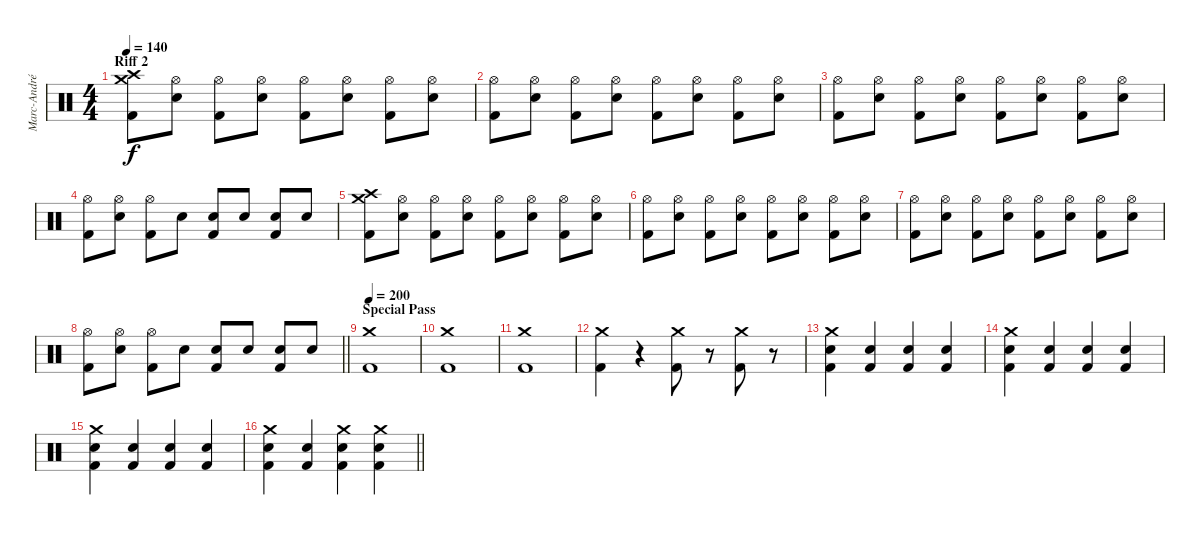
\track ("Marc-André Barabé" "Marc-André") {instrument percussion}
\staff {score}
\articulation defaults
\ts (4 4)
\section ("" "Riff 2")
\tempo 140
\clef neutral
\ks c
("Crash high (hit)" "Crash medium (hit)" "Kick (hit) 2").8{dy f} ("Hi-Hat (open)" "Electric Snare (hit)").8 ("Hi-Hat (open)" "Kick (hit) 2").8 ("Hi-Hat (open)" "Electric Snare (hit)").8 ("Hi-Hat (open)" "Kick (hit) 2"{tr (4 32)}).8 ("Hi-Hat (open)" "Electric Snare (hit)").8 ("Hi-Hat (open)" "Kick (hit) 2").8 ("Hi-Hat (open)" "Electric Snare (hit)").8 |
("Hi-Hat (open)" "Kick (hit) 2").8 ("Hi-Hat (open)" "Electric Snare (hit)").8 ("Hi-Hat (open)" "Kick (hit) 2").8 ("Hi-Hat (open)" "Electric Snare (hit)").8 ("Hi-Hat (open)" "Kick (hit) 2"{tr (4 32)}).8 ("Hi-Hat (open)" "Electric Snare (hit)").8 ("Hi-Hat (open)" "Kick (hit) 2").8 ("Hi-Hat (open)" "Electric Snare (hit)").8 |
("Hi-Hat (open)" "Kick (hit) 2").8 ("Hi-Hat (open)" "Electric Snare (hit)").8 ("Hi-Hat (open)" "Kick (hit) 2").8 ("Hi-Hat (open)" "Electric Snare (hit)").8 ("Hi-Hat (open)" "Kick (hit) 2"{tr (4 32)}).8 ("Hi-Hat (open)" "Electric Snare (hit)").8 ("Hi-Hat (open)" "Kick (hit) 2").8 ("Hi-Hat (open)" "Electric Snare (hit)").8 |
("Hi-Hat (open)" "Kick (hit) 2").8 ("Hi-Hat (open)" "Electric Snare (hit)").8 ("Hi-Hat (open)" "Kick (hit) 2").8 "Electric Snare (hit)"{tr (4 32)}.8 ("Electric Snare (hit)"{tr (4 32)} "Kick (hit) 2"{tr (4 32)}).8 "Electric Snare (hit)"{tr (4 32)}.8 ("Electric Snare (hit)"{tr (4 32)} "Kick (hit) 2").8 "Electric Snare (hit)"{tr (4 32)}.8 |
("Crash high (hit)" "Crash medium (hit)" "Kick (hit) 2").8 ("Hi-Hat (open)" "Electric Snare (hit)").8 ("Hi-Hat (open)" "Kick (hit) 2").8 ("Hi-Hat (open)" "Electric Snare (hit)").8 ("Hi-Hat (open)" "Kick (hit) 2"{tr (4 32)}).8 ("Hi-Hat (open)" "Electric Snare (hit)").8 ("Hi-Hat (open)" "Kick (hit) 2").8 ("Hi-Hat (open)" "Electric Snare (hit)").8 |
("Hi-Hat (open)" "Kick (hit) 2").8 ("Hi-Hat (open)" "Electric Snare (hit)").8 ("Hi-Hat (open)" "Kick (hit) 2").8 ("Hi-Hat (open)" "Electric Snare (hit)").8 ("Hi-Hat (open)" "Kick (hit) 2"{tr (4 32)}).8 ("Hi-Hat (open)" "Electric Snare (hit)").8 ("Hi-Hat (open)" "Kick (hit) 2").8 ("Hi-Hat (open)" "Electric Snare (hit)").8 |
("Hi-Hat (open)" "Kick (hit) 2").8 ("Hi-Hat (open)" "Electric Snare (hit)").8 ("Hi-Hat (open)" "Kick (hit) 2").8 ("Hi-Hat (open)" "Electric Snare (hit)").8 ("Hi-Hat (open)" "Kick (hit) 2"{tr (4 32)}).8 ("Hi-Hat (open)" "Electric Snare (hit)").8 ("Hi-Hat (open)" "Kick (hit) 2").8 ("Hi-Hat (open)" "Electric Snare (hit)").8 |
\barLineRight lightlight
("Hi-Hat (open)" "Kick (hit) 2").8 ("Hi-Hat (open)" "Electric Snare (hit)").8 ("Hi-Hat (open)" "Kick (hit) 2").8 "Electric Snare (hit)"{tr (4 32)}.8 ("Electric Snare (hit)"{tr (4 32)} "Kick (hit) 2"{tr (4 32)}).8 "Electric Snare (hit)"{tr (4 32)}.8 ("Electric Snare (hit)"{tr (4 32)} "Kick (hit) 2").8 "Electric Snare (hit)"{tr (4 32)}.8 |
\section ("" "Special Pass")
\tempo 200
("Crash medium (hit)" "Kick (hit) 2").1 |
("Crash medium (hit)" "Kick (hit) 2").1 |
("Crash medium (hit)" "Kick (hit) 2").1 |
("Crash medium (hit)" "Kick (hit) 2").4 r.4 ("Crash medium (hit)" "Kick (hit) 2").8 r.8 ("Crash medium (hit)" "Kick (hit) 2").8 r.8 |
("Crash medium (hit)" "Electric Snare (hit)"{tr (4 32)} "Kick (hit) 2").4 ("Electric Snare (hit)"{tr (4 32)} "Kick (hit) 2").4 ("Electric Snare (hit)"{tr (4 32)} "Kick (hit) 2").4 ("Electric Snare (hit)"{tr (4 32)} "Kick (hit) 2").4 |
("Crash medium (hit)" "Electric Snare (hit)"{tr (4 32)} "Kick (hit) 2").4 ("Electric Snare (hit)"{tr (4 32)} "Kick (hit) 2").4 ("Electric Snare (hit)"{tr (4 32)} "Kick (hit) 2").4 ("Electric Snare (hit)"{tr (4 32)} "Kick (hit) 2").4 |
("Crash medium (hit)" "Electric Snare (hit)"{tr (4 32)} "Kick (hit) 2").4 ("Electric Snare (hit)"{tr (4 32)} "Kick (hit) 2").4 ("Electric Snare (hit)"{tr (4 32)} "Kick (hit) 2").4 ("Electric Snare (hit)"{tr (4 32)} "Kick (hit) 2").4 |
\barLineRight lightlight
("Crash medium (hit)" "Electric Snare (hit)"{tr (4 32)} "Kick (hit) 2").4 ("Electric Snare (hit)"{tr (4 32)} "Kick (hit) 2").4 ("Crash medium (hit)" "Electric Snare (hit)"{tr (4 32)} "Kick (hit) 2").4 ("Crash medium (hit)" "Electric Snare (hit)"{tr (4 32)} "Kick (hit) 2").4
